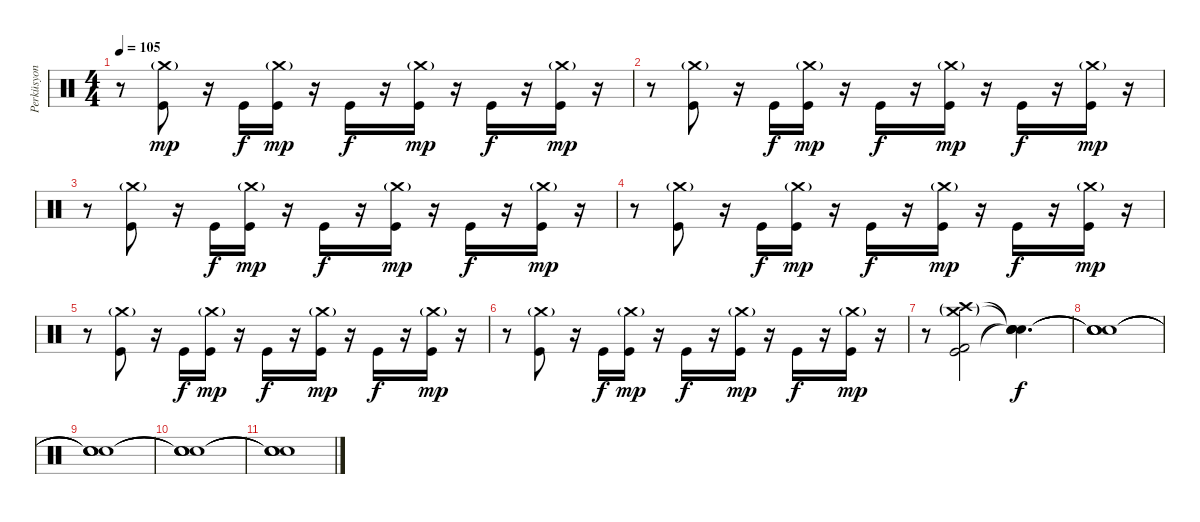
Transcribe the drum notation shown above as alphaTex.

\track ("Perküsyon" "Perküsyon") {instrument percussion}
\staff {score}
\articulation defaults
\ts (4 4)
\tempo 105
\clef neutral
\ks c
r.8{dy mp} ("Crash medium (hit)"{g} "Kick (hit)").8 r.16 "Kick (hit)".16{dy f} ("Crash medium (hit)"{g} "Kick (hit)").16{dy mp} r.16 "Kick (hit)".16{dy f} r.16 ("Crash medium (hit)"{g} "Kick (hit)").16{dy mp} r.16 "Kick (hit)".16{dy f} r.16 ("Crash medium (hit)"{g} "Kick (hit)").16{dy mp} r.16 |
r.8 ("Crash medium (hit)"{g} "Kick (hit)").8 r.16 "Kick (hit)".16{dy f} ("Crash medium (hit)"{g} "Kick (hit)").16{dy mp} r.16 "Kick (hit)".16{dy f} r.16 ("Crash medium (hit)"{g} "Kick (hit)").16{dy mp} r.16 "Kick (hit)".16{dy f} r.16 ("Crash medium (hit)"{g} "Kick (hit)").16{dy mp} r.16 |
r.8 ("Crash medium (hit)"{g} "Kick (hit)").8 r.16 "Kick (hit)".16{dy f} ("Crash medium (hit)"{g} "Kick (hit)").16{dy mp} r.16 "Kick (hit)".16{dy f} r.16 ("Crash medium (hit)"{g} "Kick (hit)").16{dy mp} r.16 "Kick (hit)".16{dy f} r.16 ("Crash medium (hit)"{g} "Kick (hit)").16{dy mp} r.16 |
r.8 ("Crash medium (hit)"{g} "Kick (hit)").8 r.16 "Kick (hit)".16{dy f} ("Crash medium (hit)"{g} "Kick (hit)").16{dy mp} r.16 "Kick (hit)".16{dy f} r.16 ("Crash medium (hit)"{g} "Kick (hit)").16{dy mp} r.16 "Kick (hit)".16{dy f} r.16 ("Crash medium (hit)"{g} "Kick (hit)").16{dy mp} r.16 |
r.8 ("Crash medium (hit)"{g} "Kick (hit)").8 r.16 "Kick (hit)".16{dy f} ("Crash medium (hit)"{g} "Kick (hit)").16{dy mp} r.16 "Kick (hit)".16{dy f} r.16 ("Crash medium (hit)"{g} "Kick (hit)").16{dy mp} r.16 "Kick (hit)".16{dy f} r.16 ("Crash medium (hit)"{g} "Kick (hit)").16{dy mp} r.16 |
r.8 ("Crash medium (hit)"{g} "Kick (hit)").8 r.16 "Kick (hit)".16{dy f} ("Crash medium (hit)"{g} "Kick (hit)").16{dy mp} r.16 "Kick (hit)".16{dy f} r.16 ("Crash medium (hit)"{g} "Kick (hit)").16{dy mp} r.16 "Kick (hit)".16{dy f} r.16 ("Crash medium (hit)"{g} "Kick (hit)").16{dy mp} r.16 |
r.8 ("Crash medium (hit)"{g} "Kick (hit)" "Crash high (hit)"{g} "Kick (hit) 2").2 ("Snare (hit)"{t} "Snare (hit)"{t} "Snare (hit)"{t} "Snare (hit)"{t}).4{d dy f} |
("Snare (hit)"{t} "Snare (hit)"{t} "Snare (hit)"{t} "Snare (hit)"{t}).1 |
("Snare (hit)"{t} "Snare (hit)"{t} "Snare (hit)"{t} "Snare (hit)"{t}).1 |
("Snare (hit)"{t} "Snare (hit)"{t} "Snare (hit)"{t} "Snare (hit)"{t}).1 |
("Snare (hit)"{t} "Snare (hit)"{t} "Snare (hit)"{t} "Snare (hit)"{t}).1
